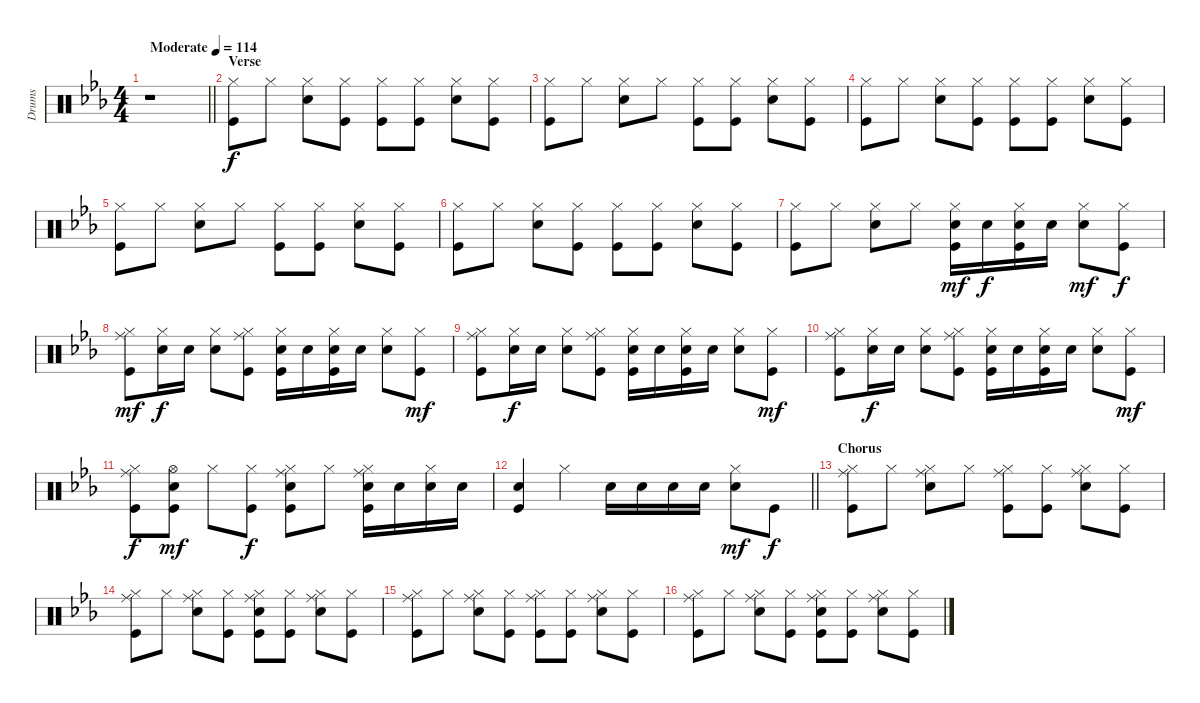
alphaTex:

\track ("Drums" "Drums") {instrument percussion}
\staff {score}
\articulation defaults
\ts (4 4)
\tempo (114 "Moderate")
\clef neutral
\barLineRight lightlight
\ks eb
r.1{dy f} |
\section ("" "Verse")
("Hi-Hat (closed)" "Kick (hit)").8 "Hi-Hat (closed)".8 ("Hi-Hat (closed)" "Snare (hit) 2").8 ("Hi-Hat (closed)" "Kick (hit)").8 ("Hi-Hat (closed)" "Kick (hit)").8 ("Hi-Hat (closed)" "Kick (hit)").8 ("Hi-Hat (closed)" "Snare (hit) 2").8 ("Hi-Hat (closed)" "Kick (hit)").8 |
("Hi-Hat (closed)" "Kick (hit)").8 "Hi-Hat (closed)".8 ("Hi-Hat (closed)" "Snare (hit) 2").8 "Hi-Hat (closed)".8 ("Hi-Hat (closed)" "Kick (hit)").8 ("Hi-Hat (closed)" "Kick (hit)").8 ("Hi-Hat (closed)" "Snare (hit) 2").8 ("Hi-Hat (closed)" "Kick (hit)").8 |
("Hi-Hat (closed)" "Kick (hit)").8 "Hi-Hat (closed)".8 ("Hi-Hat (closed)" "Snare (hit) 2").8 ("Hi-Hat (closed)" "Kick (hit)").8 ("Hi-Hat (closed)" "Kick (hit)").8 ("Hi-Hat (closed)" "Kick (hit)").8 ("Hi-Hat (closed)" "Snare (hit) 2").8 ("Hi-Hat (closed)" "Kick (hit)").8 |
("Hi-Hat (closed)" "Kick (hit)").8 "Hi-Hat (closed)".8 ("Hi-Hat (closed)" "Snare (hit) 2").8 "Hi-Hat (closed)".8 ("Hi-Hat (closed)" "Kick (hit)").8 ("Hi-Hat (closed)" "Kick (hit)").8 ("Hi-Hat (closed)" "Snare (hit) 2").8 ("Hi-Hat (closed)" "Kick (hit)").8 |
("Hi-Hat (closed)" "Kick (hit)").8 "Hi-Hat (closed)".8 ("Hi-Hat (closed)" "Snare (hit) 2").8 ("Hi-Hat (closed)" "Kick (hit)").8 ("Hi-Hat (closed)" "Kick (hit)").8 ("Hi-Hat (closed)" "Kick (hit)").8 ("Hi-Hat (closed)" "Snare (hit) 2").8 ("Hi-Hat (closed)" "Kick (hit)").8 |
("Hi-Hat (closed)" "Kick (hit)").8 "Hi-Hat (closed)".8 ("Hi-Hat (closed)" "Snare (hit) 2").8 "Hi-Hat (closed)".8 ("Hi-Hat (closed)" "Snare (hit) 2" "Kick (hit)").16{dy mf} "Snare (hit) 2".16{dy f} ("Hi-Hat (closed)" "Snare (hit) 2" "Kick (hit)").16 "Snare (hit) 2".16 ("Hi-Hat (closed)" "Snare (hit) 2").8{dy mf} ("Hi-Hat (closed)" "Kick (hit)").8{dy f} |
("Hi-Hat (closed)" "Ride (middle)" "Kick (hit)").8{dy mf} ("Hi-Hat (closed)" "Snare (hit) 2").16{dy f} "Snare (hit) 2".16 ("Hi-Hat (closed)" "Snare (hit) 2").8 ("Hi-Hat (closed)" "Ride (middle)" "Kick (hit)").8 ("Hi-Hat (closed)" "Snare (hit) 2" "Kick (hit)").16 "Snare (hit) 2".16 ("Hi-Hat (closed)" "Snare (hit) 2" "Kick (hit)").16 "Snare (hit) 2".16 ("Hi-Hat (closed)" "Snare (hit) 2").8 ("Hi-Hat (closed)" "Kick (hit)").8{dy mf} |
("Hi-Hat (closed)" "Ride (middle)" "Kick (hit)").8 ("Hi-Hat (closed)" "Snare (hit) 2").16{dy f} "Snare (hit) 2".16 ("Hi-Hat (closed)" "Snare (hit) 2").8 ("Hi-Hat (closed)" "Ride (middle)" "Kick (hit)").8 ("Hi-Hat (closed)" "Snare (hit) 2" "Kick (hit)").16 "Snare (hit) 2".16 ("Hi-Hat (closed)" "Snare (hit) 2" "Kick (hit)").16 "Snare (hit) 2".16 ("Hi-Hat (closed)" "Snare (hit) 2").8 ("Hi-Hat (closed)" "Kick (hit)").8{dy mf} |
("Hi-Hat (closed)" "Ride (middle)" "Kick (hit)").8 ("Hi-Hat (closed)" "Snare (hit) 2").16{dy f} "Snare (hit) 2".16 ("Hi-Hat (closed)" "Snare (hit) 2").8 ("Hi-Hat (closed)" "Ride (middle)" "Kick (hit)").8 ("Hi-Hat (closed)" "Snare (hit) 2" "Kick (hit)").16 "Snare (hit) 2".16 ("Hi-Hat (closed)" "Snare (hit) 2" "Kick (hit)").16 "Snare (hit) 2".16 ("Hi-Hat (closed)" "Snare (hit) 2").8 ("Hi-Hat (closed)" "Kick (hit)").8{dy mf} |
("Hi-Hat (closed)" "Ride (middle)" "Kick (hit)").8{dy f} ("Hi-Hat (open)" "Snare (hit) 2" "Kick (hit)").8{dy mf} "Hi-Hat (closed)".8 ("Hi-Hat (closed)" "Kick (hit)").8{dy f} ("Hi-Hat (closed)" "Ride (middle)" "Snare (hit) 2" "Kick (hit)").8 "Hi-Hat (closed)".8 ("Hi-Hat (closed)" "Ride (middle)" "Snare (hit) 2" "Kick (hit)").16 "Snare (hit) 2".16 ("Hi-Hat (closed)" "Snare (hit) 2").16 "Snare (hit) 2".16 |
\barLineRight lightlight
("Snare (hit) 2" "Kick (hit)").4 "Hi-Hat (closed)".4 "Snare (hit) 2".16 "Snare (hit) 2".16 "Snare (hit) 2".16 "Snare (hit) 2".16 ("Hi-Hat (closed)" "Snare (hit) 2").8{dy mf} "Kick (hit)".8{dy f} |
\section ("" "Chorus")
("Hi-Hat (closed)" "Ride (middle)" "Kick (hit)").8 "Hi-Hat (closed)".8 ("Hi-Hat (closed)" "Ride (middle)" "Snare (hit) 2").8 "Hi-Hat (closed)".8 ("Hi-Hat (closed)" "Ride (middle)" "Kick (hit)").8 ("Hi-Hat (closed)" "Kick (hit)").8 ("Hi-Hat (closed)" "Ride (middle)" "Snare (hit) 2").8 ("Hi-Hat (closed)" "Kick (hit)").8 |
("Hi-Hat (closed)" "Ride (middle)" "Kick (hit)").8 "Hi-Hat (closed)".8 ("Hi-Hat (closed)" "Ride (middle)" "Snare (hit) 2").8 ("Hi-Hat (closed)" "Kick (hit)").8 ("Hi-Hat (closed)" "Ride (middle)" "Snare (hit) 2" "Kick (hit)").8 ("Hi-Hat (closed)" "Kick (hit)").8 ("Hi-Hat (closed)" "Ride (middle)" "Snare (hit) 2").8 ("Hi-Hat (closed)" "Kick (hit)").8 |
("Hi-Hat (closed)" "Ride (middle)" "Kick (hit)").8 "Hi-Hat (closed)".8 ("Hi-Hat (closed)" "Ride (middle)" "Snare (hit) 2").8 ("Hi-Hat (closed)" "Kick (hit)").8 ("Hi-Hat (closed)" "Ride (middle)" "Kick (hit)").8 ("Hi-Hat (closed)" "Kick (hit)").8 ("Hi-Hat (closed)" "Ride (middle)" "Snare (hit) 2").8 ("Hi-Hat (closed)" "Kick (hit)").8 |
("Hi-Hat (closed)" "Ride (middle)" "Kick (hit)").8 "Hi-Hat (closed)".8 ("Hi-Hat (closed)" "Ride (middle)" "Snare (hit) 2").8 ("Hi-Hat (closed)" "Kick (hit)").8 ("Hi-Hat (closed)" "Ride (middle)" "Snare (hit) 2" "Kick (hit)").8 ("Hi-Hat (closed)" "Kick (hit)").8 ("Hi-Hat (closed)" "Ride (middle)" "Snare (hit) 2").8 ("Hi-Hat (closed)" "Kick (hit)").8
